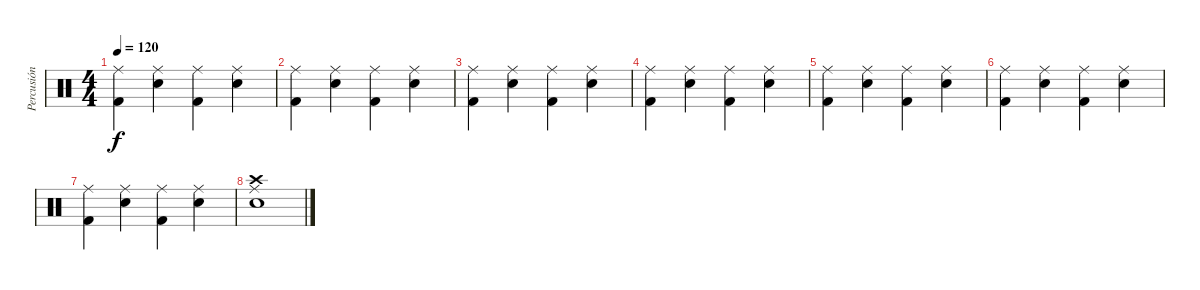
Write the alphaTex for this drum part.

\track ("Percusión" "Percusión") {instrument percussion}
\staff {score}
\articulation defaults
\ts (4 4)
\tempo 120
\clef neutral
\ks c
("Ride (middle)" "Kick (hit) 2").4{dy f} ("Ride (middle)" "Electric Snare (hit)").4 ("Ride (middle)" "Kick (hit) 2").4 ("Ride (middle)" "Electric Snare (hit)").4 |
("Ride (middle)" "Kick (hit) 2").4 ("Ride (middle)" "Electric Snare (hit)").4 ("Ride (middle)" "Kick (hit) 2").4 ("Ride (middle)" "Electric Snare (hit)").4 |
("Ride (middle)" "Kick (hit) 2").4 ("Ride (middle)" "Electric Snare (hit)").4 ("Ride (middle)" "Kick (hit) 2").4 ("Ride (middle)" "Electric Snare (hit)").4 |
("Ride (middle)" "Kick (hit) 2").4 ("Ride (middle)" "Electric Snare (hit)").4 ("Ride (middle)" "Kick (hit) 2").4 ("Ride (middle)" "Electric Snare (hit)").4 |
("Ride (middle)" "Kick (hit) 2").4 ("Ride (middle)" "Electric Snare (hit)").4 ("Ride (middle)" "Kick (hit) 2").4 ("Ride (middle)" "Electric Snare (hit)").4 |
("Ride (middle)" "Kick (hit) 2").4 ("Ride (middle)" "Electric Snare (hit)").4 ("Ride (middle)" "Kick (hit) 2").4 ("Ride (middle)" "Electric Snare (hit)").4 |
("Ride (middle)" "Kick (hit) 2").4 ("Ride (middle)" "Electric Snare (hit)").4 ("Ride (middle)" "Kick (hit) 2").4 ("Ride (middle)" "Electric Snare (hit)").4 |
("Ride (middle)" "Electric Snare (hit)" "Crash high (hit)").1
